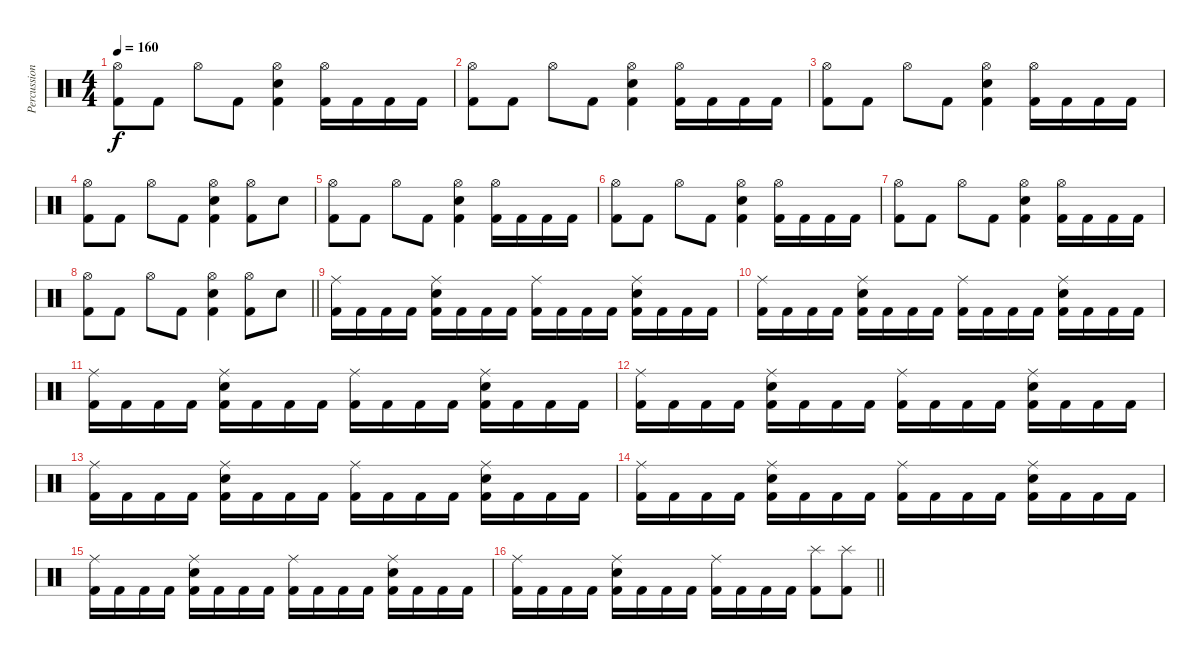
\track ("Percussions" "Percussion") {instrument percussion}
\staff {score}
\articulation defaults
\ts (4 4)
\tempo 160
\clef neutral
\ks c
("Hi-Hat (open)" "Kick (hit) 2").8{dy f} "Kick (hit) 2".8 "Hi-Hat (open)".8 "Kick (hit) 2".8 ("Hi-Hat (open)" "Electric Snare (hit)" "Kick (hit) 2").4 ("Hi-Hat (open)" "Kick (hit) 2").16 "Kick (hit) 2".16 "Kick (hit) 2".16 "Kick (hit) 2".16 |
("Hi-Hat (open)" "Kick (hit) 2").8 "Kick (hit) 2".8 "Hi-Hat (open)".8 "Kick (hit) 2".8 ("Hi-Hat (open)" "Electric Snare (hit)" "Kick (hit) 2").4 ("Hi-Hat (open)" "Kick (hit) 2").16 "Kick (hit) 2".16 "Kick (hit) 2".16 "Kick (hit) 2".16 |
("Hi-Hat (open)" "Kick (hit) 2").8 "Kick (hit) 2".8 "Hi-Hat (open)".8 "Kick (hit) 2".8 ("Hi-Hat (open)" "Electric Snare (hit)" "Kick (hit) 2").4 ("Hi-Hat (open)" "Kick (hit) 2").16 "Kick (hit) 2".16 "Kick (hit) 2".16 "Kick (hit) 2".16 |
("Hi-Hat (open)" "Kick (hit) 2").8 "Kick (hit) 2".8 "Hi-Hat (open)".8 "Kick (hit) 2".8 ("Hi-Hat (open)" "Electric Snare (hit)" "Kick (hit) 2").4 ("Hi-Hat (open)" "Kick (hit) 2").8 "Electric Snare (hit)".8 |
("Hi-Hat (open)" "Kick (hit) 2").8 "Kick (hit) 2".8 "Hi-Hat (open)".8 "Kick (hit) 2".8 ("Hi-Hat (open)" "Electric Snare (hit)" "Kick (hit) 2").4 ("Hi-Hat (open)" "Kick (hit) 2").16 "Kick (hit) 2".16 "Kick (hit) 2".16 "Kick (hit) 2".16 |
("Hi-Hat (open)" "Kick (hit) 2").8 "Kick (hit) 2".8 "Hi-Hat (open)".8 "Kick (hit) 2".8 ("Hi-Hat (open)" "Electric Snare (hit)" "Kick (hit) 2").4 ("Hi-Hat (open)" "Kick (hit) 2").16 "Kick (hit) 2".16 "Kick (hit) 2".16 "Kick (hit) 2".16 |
("Hi-Hat (open)" "Kick (hit) 2").8 "Kick (hit) 2".8 "Hi-Hat (open)".8 "Kick (hit) 2".8 ("Hi-Hat (open)" "Electric Snare (hit)" "Kick (hit) 2").4 ("Hi-Hat (open)" "Kick (hit) 2").16 "Kick (hit) 2".16 "Kick (hit) 2".16 "Kick (hit) 2".16 |
\barLineRight lightlight
("Hi-Hat (open)" "Kick (hit) 2").8 "Kick (hit) 2".8 "Hi-Hat (open)".8 "Kick (hit) 2".8 ("Hi-Hat (open)" "Electric Snare (hit)" "Kick (hit) 2").4 ("Hi-Hat (open)" "Kick (hit) 2").8 "Electric Snare (hit)".8 |
("Ride (middle)" "Kick (hit) 2").16 "Kick (hit) 2".16 "Kick (hit) 2".16 "Kick (hit) 2".16 ("Ride (middle)" "Electric Snare (hit)" "Kick (hit) 2").16 "Kick (hit) 2".16 "Kick (hit) 2".16 "Kick (hit) 2".16 ("Ride (middle)" "Kick (hit) 2").16 "Kick (hit) 2".16 "Kick (hit) 2".16 "Kick (hit) 2".16 ("Ride (middle)" "Electric Snare (hit)" "Kick (hit) 2").16 "Kick (hit) 2".16 "Kick (hit) 2".16 "Kick (hit) 2".16 |
("Ride (middle)" "Kick (hit) 2").16 "Kick (hit) 2".16 "Kick (hit) 2".16 "Kick (hit) 2".16 ("Ride (middle)" "Electric Snare (hit)" "Kick (hit) 2").16 "Kick (hit) 2".16 "Kick (hit) 2".16 "Kick (hit) 2".16 ("Ride (middle)" "Kick (hit) 2").16 "Kick (hit) 2".16 "Kick (hit) 2".16 "Kick (hit) 2".16 ("Ride (middle)" "Electric Snare (hit)" "Kick (hit) 2").16 "Kick (hit) 2".16 "Kick (hit) 2".16 "Kick (hit) 2".16 |
("Ride (middle)" "Kick (hit) 2").16 "Kick (hit) 2".16 "Kick (hit) 2".16 "Kick (hit) 2".16 ("Ride (middle)" "Electric Snare (hit)" "Kick (hit) 2").16 "Kick (hit) 2".16 "Kick (hit) 2".16 "Kick (hit) 2".16 ("Ride (middle)" "Kick (hit) 2").16 "Kick (hit) 2".16 "Kick (hit) 2".16 "Kick (hit) 2".16 ("Ride (middle)" "Electric Snare (hit)" "Kick (hit) 2").16 "Kick (hit) 2".16 "Kick (hit) 2".16 "Kick (hit) 2".16 |
("Ride (middle)" "Kick (hit) 2").16 "Kick (hit) 2".16 "Kick (hit) 2".16 "Kick (hit) 2".16 ("Ride (middle)" "Electric Snare (hit)" "Kick (hit) 2").16 "Kick (hit) 2".16 "Kick (hit) 2".16 "Kick (hit) 2".16 ("Ride (middle)" "Kick (hit) 2").16 "Kick (hit) 2".16 "Kick (hit) 2".16 "Kick (hit) 2".16 ("Ride (middle)" "Electric Snare (hit)" "Kick (hit) 2").16 "Kick (hit) 2".16 "Kick (hit) 2".16 "Kick (hit) 2".16 |
("Ride (middle)" "Kick (hit) 2").16 "Kick (hit) 2".16 "Kick (hit) 2".16 "Kick (hit) 2".16 ("Ride (middle)" "Electric Snare (hit)" "Kick (hit) 2").16 "Kick (hit) 2".16 "Kick (hit) 2".16 "Kick (hit) 2".16 ("Ride (middle)" "Kick (hit) 2").16 "Kick (hit) 2".16 "Kick (hit) 2".16 "Kick (hit) 2".16 ("Ride (middle)" "Electric Snare (hit)" "Kick (hit) 2").16 "Kick (hit) 2".16 "Kick (hit) 2".16 "Kick (hit) 2".16 |
("Ride (middle)" "Kick (hit) 2").16 "Kick (hit) 2".16 "Kick (hit) 2".16 "Kick (hit) 2".16 ("Ride (middle)" "Electric Snare (hit)" "Kick (hit) 2").16 "Kick (hit) 2".16 "Kick (hit) 2".16 "Kick (hit) 2".16 ("Ride (middle)" "Kick (hit) 2").16 "Kick (hit) 2".16 "Kick (hit) 2".16 "Kick (hit) 2".16 ("Ride (middle)" "Electric Snare (hit)" "Kick (hit) 2").16 "Kick (hit) 2".16 "Kick (hit) 2".16 "Kick (hit) 2".16 |
("Ride (middle)" "Kick (hit) 2").16 "Kick (hit) 2".16 "Kick (hit) 2".16 "Kick (hit) 2".16 ("Ride (middle)" "Electric Snare (hit)" "Kick (hit) 2").16 "Kick (hit) 2".16 "Kick (hit) 2".16 "Kick (hit) 2".16 ("Ride (middle)" "Kick (hit) 2").16 "Kick (hit) 2".16 "Kick (hit) 2".16 "Kick (hit) 2".16 ("Ride (middle)" "Electric Snare (hit)" "Kick (hit) 2").16 "Kick (hit) 2".16 "Kick (hit) 2".16 "Kick (hit) 2".16 |
\barLineRight lightlight
("Ride (middle)" "Kick (hit) 2").16 "Kick (hit) 2".16 "Kick (hit) 2".16 "Kick (hit) 2".16 ("Ride (middle)" "Electric Snare (hit)" "Kick (hit) 2").16 "Kick (hit) 2".16 "Kick (hit) 2".16 "Kick (hit) 2".16 ("Ride (middle)" "Kick (hit) 2").16 "Kick (hit) 2".16 "Kick (hit) 2".16 "Kick (hit) 2".16 ("Splash (hit)" "Kick (hit) 2").8 ("Splash (hit)" "Kick (hit) 2").8
